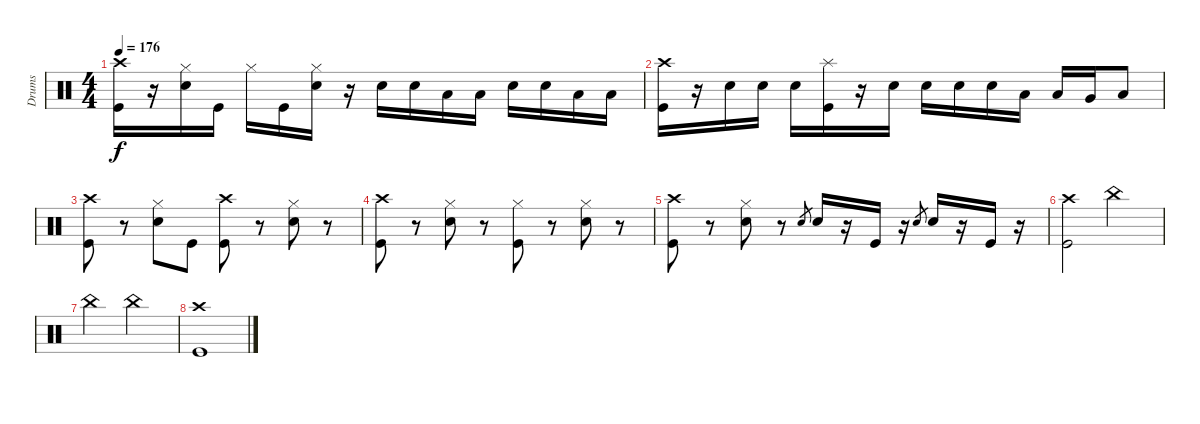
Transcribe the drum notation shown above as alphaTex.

\track ("Drums" "Drums") {instrument percussion}
\staff {score}
\articulation defaults
\ts (4 4)
\tempo 176
\clef neutral
\ks c
("Crash high (hit)" "Kick (hit)").16{dy f} r.16 ("Hi-Hat (closed)" "Snare (hit) 2").16 "Kick (hit)".16 "Hi-Hat (closed)".16 "Kick (hit)".16 ("Hi-Hat (closed)" "Snare (hit) 2").16 r.16 "Snare (hit) 2".16 "Snare (hit) 2".16 "Low Tom (hit)".16 "Low Tom (hit)".16 "Snare (hit) 2".16 "Snare (hit) 2".16 "Low Tom (hit)".16 "Low Tom (hit)".16 |
("Crash high (hit)" "Kick (hit)").16 r.16 "Snare (hit) 2".16 "Snare (hit) 2".16 "Snare (hit) 2".16 ("Splash (hit)" "Kick (hit)").16 r.16 "Snare (hit) 2".16 "Snare (hit) 2".16 "Snare (hit) 2".16 "Snare (hit) 2".16 "Low Tom (hit)".16 "Low Tom (hit)".16 "Very Low Tom (hit)".16 "Low Floor Tom (hit)".8 |
("Crash high (hit)" "Kick (hit)").8 r.8 ("Hi-Hat (closed)" "Snare (hit) 2").8 "Kick (hit)".8 ("Crash high (hit)" "Kick (hit)").8 r.8 ("Hi-Hat (closed)" "Snare (hit) 2").8 r.8 |
("Crash high (hit)" "Kick (hit)").8 r.8 ("Hi-Hat (closed)" "Snare (hit) 2").8 r.8 ("Hi-Hat (closed)" "Kick (hit)").8 r.8 ("Hi-Hat (closed)" "Snare (hit) 2").8 r.8 |
("Crash high (hit)" "Kick (hit)").8 r.8 ("Hi-Hat (closed)" "Snare (hit) 2").8 r.8 "Snare (hit) 2".8{gr} "Snare (hit) 2".16 r.16 "Kick (hit)".16 r.16 "Snare (hit) 2".8{gr} "Snare (hit) 2".16 r.16 "Kick (hit)".16 r.16 |
("Crash high (hit)" "Kick (hit)").2 "China (hit)".2 |
"China (hit)".2 "China (hit)".2 |
("Crash high (hit)" "Kick (hit)").1
